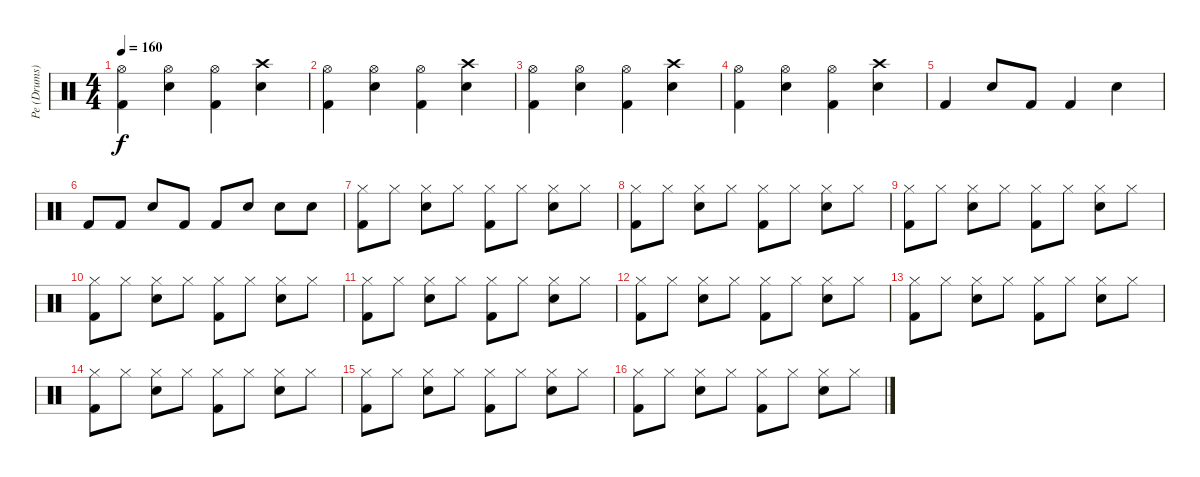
\track ("Pe (Drums)" "Pe (Drums)") {instrument percussion}
\staff {score}
\articulation defaults
\ts (4 4)
\tempo 160
\clef neutral
\ks c
("Hi-Hat (open)" "Kick (hit) 2").4{dy f} ("Hi-Hat (open)" "Snare (hit) 2").4 ("Hi-Hat (open)" "Kick (hit) 2").4 ("Crash high (hit)" "Snare (hit) 2").4 |
("Hi-Hat (open)" "Kick (hit) 2").4 ("Hi-Hat (open)" "Snare (hit) 2").4 ("Hi-Hat (open)" "Kick (hit) 2").4 ("Crash high (hit)" "Snare (hit) 2").4 |
("Hi-Hat (open)" "Kick (hit) 2").4 ("Hi-Hat (open)" "Snare (hit) 2").4 ("Hi-Hat (open)" "Kick (hit) 2").4 ("Crash high (hit)" "Snare (hit) 2").4 |
("Hi-Hat (open)" "Kick (hit) 2").4 ("Hi-Hat (open)" "Snare (hit) 2").4 ("Hi-Hat (open)" "Kick (hit) 2").4 ("Crash high (hit)" "Snare (hit) 2").4 |
"Kick (hit) 2".4 "Snare (hit) 2".8 "Kick (hit) 2".8 "Kick (hit) 2".4 "Snare (hit) 2".4 |
"Kick (hit) 2".8 "Kick (hit) 2".8 "Snare (hit) 2".8 "Kick (hit) 2".8 "Kick (hit) 2".8 "Snare (hit) 2".8 "Snare (hit) 2".8 "Snare (hit) 2".8 |
("Hi-Hat (closed)" "Kick (hit) 2").8 "Hi-Hat (closed)".8 ("Hi-Hat (closed)" "Snare (hit) 2").8 "Hi-Hat (closed)".8 ("Hi-Hat (closed)" "Kick (hit) 2").8 "Hi-Hat (closed)".8 ("Hi-Hat (closed)" "Snare (hit) 2").8 "Hi-Hat (closed)".8 |
("Hi-Hat (closed)" "Kick (hit) 2").8 "Hi-Hat (closed)".8 ("Hi-Hat (closed)" "Snare (hit) 2").8 "Hi-Hat (closed)".8 ("Hi-Hat (closed)" "Kick (hit) 2").8 "Hi-Hat (closed)".8 ("Hi-Hat (closed)" "Snare (hit) 2").8 "Hi-Hat (closed)".8 |
("Hi-Hat (closed)" "Kick (hit) 2").8 "Hi-Hat (closed)".8 ("Hi-Hat (closed)" "Snare (hit) 2").8 "Hi-Hat (closed)".8 ("Hi-Hat (closed)" "Kick (hit) 2").8 "Hi-Hat (closed)".8 ("Hi-Hat (closed)" "Snare (hit) 2").8 "Hi-Hat (closed)".8 |
("Hi-Hat (closed)" "Kick (hit) 2").8 "Hi-Hat (closed)".8 ("Hi-Hat (closed)" "Snare (hit) 2").8 "Hi-Hat (closed)".8 ("Hi-Hat (closed)" "Kick (hit) 2").8 "Hi-Hat (closed)".8 ("Hi-Hat (closed)" "Snare (hit) 2").8 "Hi-Hat (closed)".8 |
("Hi-Hat (closed)" "Kick (hit) 2").8 "Hi-Hat (closed)".8 ("Hi-Hat (closed)" "Snare (hit) 2").8 "Hi-Hat (closed)".8 ("Hi-Hat (closed)" "Kick (hit) 2").8 "Hi-Hat (closed)".8 ("Hi-Hat (closed)" "Snare (hit) 2").8 "Hi-Hat (closed)".8 |
("Hi-Hat (closed)" "Kick (hit) 2").8 "Hi-Hat (closed)".8 ("Hi-Hat (closed)" "Snare (hit) 2").8 "Hi-Hat (closed)".8 ("Hi-Hat (closed)" "Kick (hit) 2").8 "Hi-Hat (closed)".8 ("Hi-Hat (closed)" "Snare (hit) 2").8 "Hi-Hat (closed)".8 |
("Hi-Hat (closed)" "Kick (hit) 2").8 "Hi-Hat (closed)".8 ("Hi-Hat (closed)" "Snare (hit) 2").8 "Hi-Hat (closed)".8 ("Hi-Hat (closed)" "Kick (hit) 2").8 "Hi-Hat (closed)".8 ("Hi-Hat (closed)" "Snare (hit) 2").8 "Hi-Hat (closed)".8 |
("Hi-Hat (closed)" "Kick (hit) 2").8 "Hi-Hat (closed)".8 ("Hi-Hat (closed)" "Snare (hit) 2").8 "Hi-Hat (closed)".8 ("Hi-Hat (closed)" "Kick (hit) 2").8 "Hi-Hat (closed)".8 ("Hi-Hat (closed)" "Snare (hit) 2").8 "Hi-Hat (closed)".8 |
("Hi-Hat (closed)" "Kick (hit) 2").8 "Hi-Hat (closed)".8 ("Hi-Hat (closed)" "Snare (hit) 2").8 "Hi-Hat (closed)".8 ("Hi-Hat (closed)" "Kick (hit) 2").8 "Hi-Hat (closed)".8 ("Hi-Hat (closed)" "Snare (hit) 2").8 "Hi-Hat (closed)".8 |
("Hi-Hat (closed)" "Kick (hit) 2").8 "Hi-Hat (closed)".8 ("Hi-Hat (closed)" "Snare (hit) 2").8 "Hi-Hat (closed)".8 ("Hi-Hat (closed)" "Kick (hit) 2").8 "Hi-Hat (closed)".8 ("Hi-Hat (closed)" "Snare (hit) 2").8 "Hi-Hat (closed)".8
